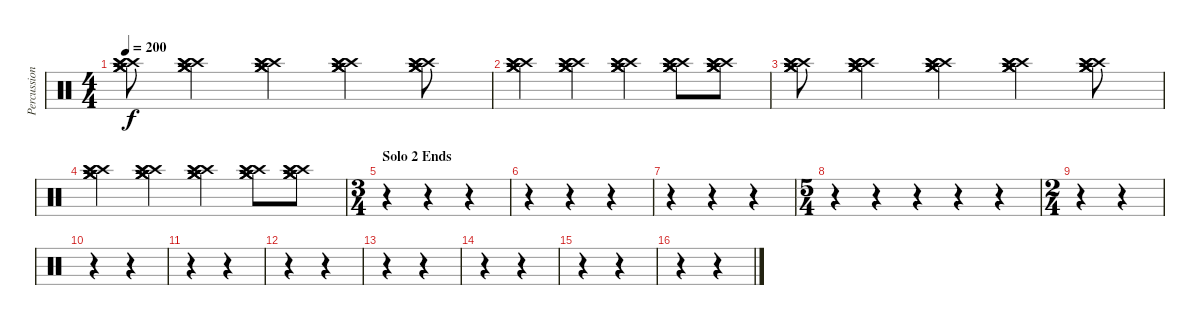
\track ("Percussion" "Percussion") {instrument percussion}
\staff {score}
\articulation defaults
\ts (4 4)
\tempo 200
\clef neutral
\ks c
("Crash high (hit)" "Crash high (hit)" "Crash high (hit)" "Crash medium (hit)" "Crash medium (hit)" "Crash medium (hit)").8{dy f} ("Crash high (hit)" "Crash high (hit)" "Crash high (hit)" "Crash medium (hit)" "Crash medium (hit)" "Crash medium (hit)").4 ("Crash high (hit)" "Crash high (hit)" "Crash high (hit)" "Crash medium (hit)" "Crash medium (hit)" "Crash medium (hit)").4 ("Crash high (hit)" "Crash high (hit)" "Crash high (hit)" "Crash medium (hit)" "Crash medium (hit)" "Crash medium (hit)").4 ("Crash high (hit)" "Crash high (hit)" "Crash high (hit)" "Crash medium (hit)" "Crash medium (hit)" "Crash medium (hit)").8 |
("Crash high (hit)" "Crash high (hit)" "Crash high (hit)" "Crash medium (hit)" "Crash medium (hit)" "Crash medium (hit)").4 ("Crash high (hit)" "Crash high (hit)" "Crash high (hit)" "Crash medium (hit)" "Crash medium (hit)" "Crash medium (hit)").4 ("Crash high (hit)" "Crash high (hit)" "Crash high (hit)" "Crash medium (hit)" "Crash medium (hit)" "Crash medium (hit)").4 ("Crash high (hit)" "Crash high (hit)" "Crash high (hit)" "Crash medium (hit)" "Crash medium (hit)" "Crash medium (hit)").8 ("Crash high (hit)" "Crash high (hit)" "Crash high (hit)" "Crash medium (hit)" "Crash medium (hit)" "Crash medium (hit)").8 |
("Crash high (hit)" "Crash high (hit)" "Crash high (hit)" "Crash medium (hit)" "Crash medium (hit)" "Crash medium (hit)").8 ("Crash high (hit)" "Crash high (hit)" "Crash high (hit)" "Crash medium (hit)" "Crash medium (hit)" "Crash medium (hit)").4 ("Crash high (hit)" "Crash high (hit)" "Crash high (hit)" "Crash medium (hit)" "Crash medium (hit)" "Crash medium (hit)").4 ("Crash high (hit)" "Crash high (hit)" "Crash high (hit)" "Crash medium (hit)" "Crash medium (hit)" "Crash medium (hit)").4 ("Crash high (hit)" "Crash high (hit)" "Crash high (hit)" "Crash medium (hit)" "Crash medium (hit)" "Crash medium (hit)").8 |
("Crash high (hit)" "Crash high (hit)" "Crash high (hit)" "Crash medium (hit)" "Crash medium (hit)" "Crash medium (hit)").4 ("Crash high (hit)" "Crash high (hit)" "Crash high (hit)" "Crash medium (hit)" "Crash medium (hit)" "Crash medium (hit)").4 ("Crash high (hit)" "Crash high (hit)" "Crash high (hit)" "Crash medium (hit)" "Crash medium (hit)" "Crash medium (hit)").4 ("Crash high (hit)" "Crash high (hit)" "Crash high (hit)" "Crash medium (hit)" "Crash medium (hit)" "Crash medium (hit)").8 ("Crash high (hit)" "Crash high (hit)" "Crash high (hit)" "Crash medium (hit)" "Crash medium (hit)" "Crash medium (hit)").8 |
\ts (3 4)
\section ("" "Solo 2 Ends")
r.4{volume 14} r.4 r.4 |
r.4 r.4 r.4 |
r.4 r.4 r.4 |
\ts (5 4)
r.4 r.4 r.4 r.4 r.4 |
\ts (2 4)
r.4 r.4 |
r.4 r.4 |
r.4 r.4 |
r.4 r.4 |
r.4 r.4 |
r.4 r.4 |
r.4 r.4 |
r.4 r.4
